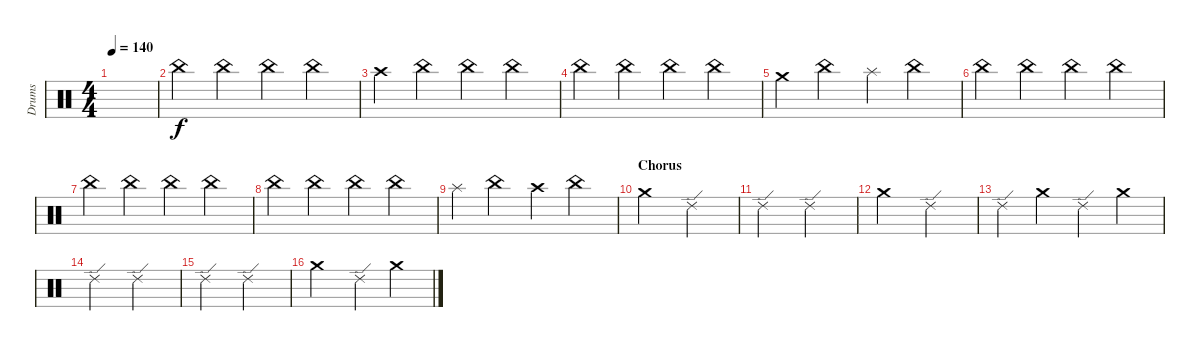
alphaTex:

\track ("Drums" "Drums") {instrument percussion}
\staff {score}
\articulation defaults
\ts (4 4)
\tempo 140
\clef neutral
\ks c
|
"China (hit)".4 "China (hit)".4 "China (hit)".4 "China (hit)".4 |
"Crash high (hit)".4 "China (hit)".4 "China (hit)".4 "China (hit)".4 |
"China (hit)".4 "China (hit)".4 "China (hit)".4 "China (hit)".4 |
"Crash medium (hit)".4 "China (hit)".4 "Splash (hit)".4 "China (hit)".4 |
"China (hit)".4 "China (hit)".4 "China (hit)".4 "China (hit)".4 |
"China (hit)".4 "China (hit)".4 "China (hit)".4 "China (hit)".4 |
"China (hit)".4 "China (hit)".4 "China (hit)".4 "China (hit)".4 |
"Splash (hit)".4 "China (hit)".4 "Crash high (hit)".4 "China (hit)".4 |
\section ("" "Chorus")
"Crash medium (hit)".2 "Ride (edge) 2".2 |
"Ride (edge) 2".2 "Ride (edge) 2".2 |
"Crash medium (hit)".2 "Ride (edge) 2".2 |
"Ride (edge) 2".4 "Crash medium (hit)".4 "Ride (edge) 2".4 "Crash medium (hit)".4 |
"Ride (edge) 2".2 "Ride (edge) 2".2 |
"Ride (edge) 2".2 "Ride (edge) 2".2 |
"Crash medium (hit)".2 "Ride (edge) 2".4 "Crash medium (hit)".4
